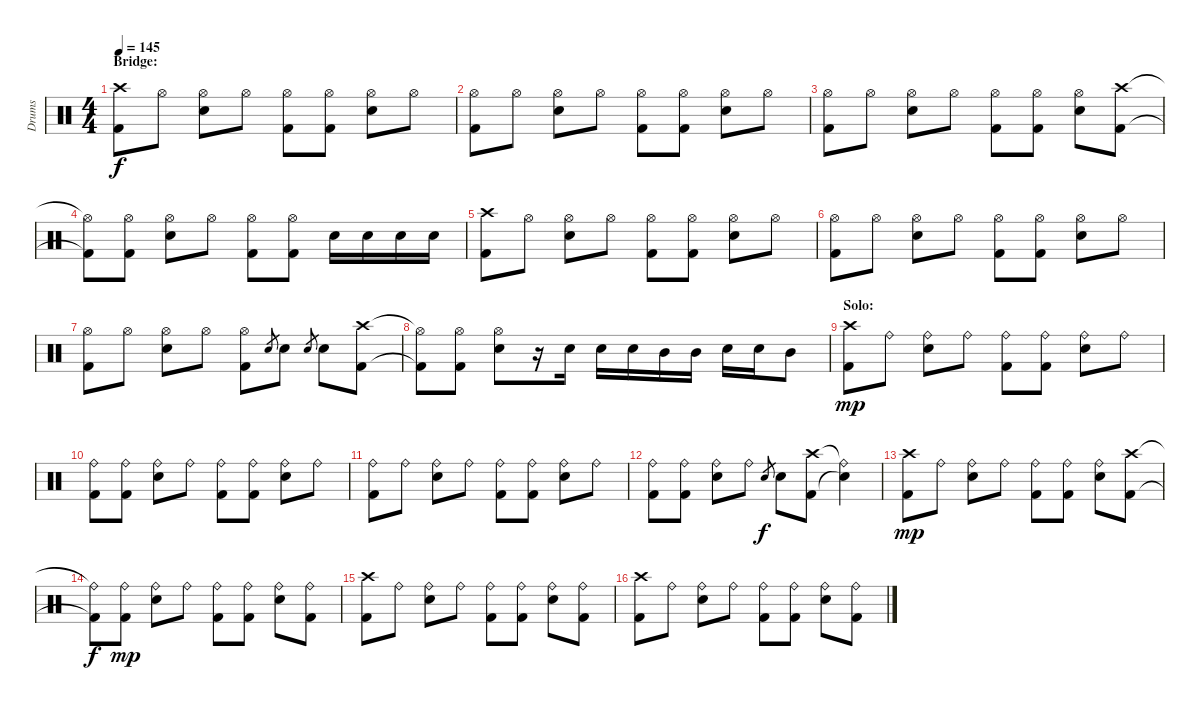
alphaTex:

\track ("Drums" "Drums") {instrument percussion}
\staff {score}
\articulation defaults
\ts (4 4)
\section ("" "Bridge:")
\tempo 145
\clef neutral
\ks c
("Crash high (hit)" "Kick (hit) 2").8{dy f} "Hi-Hat (open)".8 ("Hi-Hat (open)" "Electric Snare (hit)").8 "Hi-Hat (open)".8 ("Hi-Hat (open)" "Kick (hit) 2").8 ("Hi-Hat (open)" "Kick (hit) 2").8 ("Hi-Hat (open)" "Electric Snare (hit)").8 "Hi-Hat (open)".8 |
("Hi-Hat (open)" "Kick (hit) 2").8 "Hi-Hat (open)".8 ("Hi-Hat (open)" "Electric Snare (hit)").8 "Hi-Hat (open)".8 ("Hi-Hat (open)" "Kick (hit) 2").8 ("Hi-Hat (open)" "Kick (hit) 2").8 ("Hi-Hat (open)" "Electric Snare (hit)").8 "Hi-Hat (open)".8 |
("Hi-Hat (open)" "Kick (hit) 2").8 "Hi-Hat (open)".8 ("Hi-Hat (open)" "Electric Snare (hit)").8 "Hi-Hat (open)".8 ("Hi-Hat (open)" "Kick (hit) 2").8 ("Hi-Hat (open)" "Kick (hit) 2").8 ("Hi-Hat (open)" "Electric Snare (hit)").8 ("Crash high (hit)" "Kick (hit) 2").8 |
("Hi-Hat (open)"{t} "Kick (hit) 2"{t}).8 ("Hi-Hat (open)" "Kick (hit) 2").8 ("Hi-Hat (open)" "Electric Snare (hit)").8 "Hi-Hat (open)".8 ("Hi-Hat (open)" "Kick (hit) 2").8 ("Hi-Hat (open)" "Kick (hit) 2").8 "Electric Snare (hit)".16 "Electric Snare (hit)".16 "Electric Snare (hit)".16 "Electric Snare (hit)".16 |
("Crash high (hit)" "Kick (hit) 2").8 "Hi-Hat (open)".8 ("Hi-Hat (open)" "Electric Snare (hit)").8 "Hi-Hat (open)".8 ("Hi-Hat (open)" "Kick (hit) 2").8 ("Hi-Hat (open)" "Kick (hit) 2").8 ("Hi-Hat (open)" "Electric Snare (hit)").8 "Hi-Hat (open)".8 |
("Hi-Hat (open)" "Kick (hit) 2").8 "Hi-Hat (open)".8 ("Hi-Hat (open)" "Electric Snare (hit)").8 "Hi-Hat (open)".8 ("Hi-Hat (open)" "Kick (hit) 2").8 ("Hi-Hat (open)" "Kick (hit) 2").8 ("Hi-Hat (open)" "Electric Snare (hit)").8 "Hi-Hat (open)".8 |
("Hi-Hat (open)" "Kick (hit) 2").8 "Hi-Hat (open)".8 ("Hi-Hat (open)" "Electric Snare (hit)").8 "Hi-Hat (open)".8 ("Hi-Hat (open)" "Kick (hit) 2").8 "Electric Snare (hit)".8{gr} "Electric Snare (hit)".8 "Electric Snare (hit)".8{gr} "Electric Snare (hit)".8 ("Crash high (hit)" "Kick (hit) 2").8 |
("Hi-Hat (open)"{t} "Kick (hit) 2"{t}).8 ("Hi-Hat (open)" "Kick (hit) 2").8 ("Hi-Hat (open)" "Electric Snare (hit)").8 r.16 "Electric Snare (hit)".16 "Electric Snare (hit)".16 "Electric Snare (hit)".16 "Mid Tom (hit)".16 "Mid Tom (hit)".16 "Electric Snare (hit)".16 "Electric Snare (hit)".16 "Mid Tom (hit)".8 |
\section ("" "Solo:")
("Crash high (hit)" "Kick (hit) 2").8{dy mp} "Ride (bell)".8 ("Ride (bell)" "Electric Snare (hit)").8 "Ride (bell)".8 ("Ride (bell)" "Kick (hit) 2").8 ("Ride (bell)" "Kick (hit) 2").8 ("Ride (bell)" "Electric Snare (hit)").8 "Ride (bell)".8 |
("Ride (bell)" "Kick (hit) 2").8 ("Ride (bell)" "Kick (hit) 2").8 ("Ride (bell)" "Electric Snare (hit)").8 "Ride (bell)".8 ("Ride (bell)" "Kick (hit) 2").8 ("Ride (bell)" "Kick (hit) 2").8 ("Ride (bell)" "Electric Snare (hit)").8 "Ride (bell)".8 |
("Ride (bell)" "Kick (hit) 2").8 "Ride (bell)".8 ("Ride (bell)" "Electric Snare (hit)").8 "Ride (bell)".8 ("Ride (bell)" "Kick (hit) 2").8 ("Ride (bell)" "Kick (hit) 2").8 ("Ride (bell)" "Electric Snare (hit)").8 "Ride (bell)".8 |
("Ride (bell)" "Kick (hit) 2").8 ("Ride (bell)" "Kick (hit) 2").8 ("Ride (bell)" "Electric Snare (hit)").8 "Ride (bell)".8 "Electric Snare (hit)".8{gr dy f} "Electric Snare (hit)".8 ("Crash high (hit)" "Kick (hit) 2").8 ("Ride (bell)"{t} "Snare (hit)"{t}).4 |
("Crash high (hit)" "Kick (hit) 2").8{dy mp} "Ride (bell)".8 ("Ride (bell)" "Electric Snare (hit)").8 "Ride (bell)".8 ("Ride (bell)" "Kick (hit) 2").8 ("Ride (bell)" "Kick (hit) 2").8 ("Ride (bell)" "Electric Snare (hit)").8 ("Crash high (hit)" "Kick (hit) 2").8 |
("Ride (bell)"{t} "Kick (hit) 2"{t}).8{dy f} ("Ride (bell)" "Kick (hit) 2").8{dy mp} ("Ride (bell)" "Electric Snare (hit)").8 "Ride (bell)".8 ("Ride (bell)" "Kick (hit) 2").8 ("Ride (bell)" "Kick (hit) 2").8 ("Ride (bell)" "Electric Snare (hit)").8 ("Ride (bell)" "Kick (hit) 2").8 |
("Crash high (hit)" "Kick (hit) 2").8 "Ride (bell)".8 ("Ride (bell)" "Electric Snare (hit)").8 "Ride (bell)".8 ("Ride (bell)" "Kick (hit) 2").8 ("Ride (bell)" "Kick (hit) 2").8 ("Ride (bell)" "Electric Snare (hit)").8 ("Ride (bell)" "Kick (hit) 2").8 |
("Crash high (hit)" "Kick (hit) 2").8 "Ride (bell)".8 ("Ride (bell)" "Electric Snare (hit)").8 "Ride (bell)".8 ("Ride (bell)" "Kick (hit) 2").8 ("Ride (bell)" "Kick (hit) 2").8 ("Ride (bell)" "Electric Snare (hit)").8 ("Ride (bell)" "Kick (hit) 2").8
